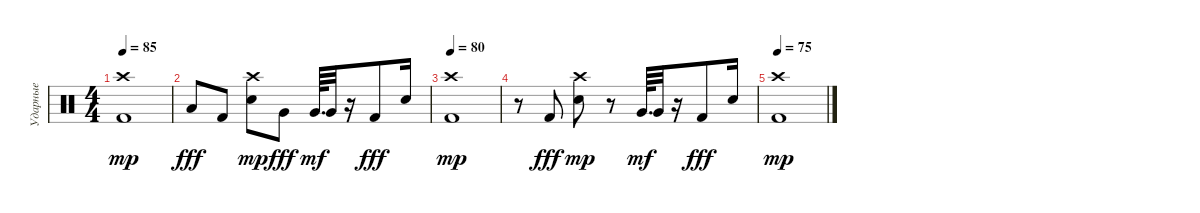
\track ("Ударные" "Ударные") {instrument percussion}
\staff {score}
\articulation defaults
\ts (4 4)
\tempo 85
\clef neutral
\ks c
("Kick (hit) 2" "Crash high (hit)").1{dy mp} |
"Low Floor Tom (hit)".8{dy fff} "Kick (hit) 2".8 ("Snare (hit) 2" "Crash high (hit)").8{dy mp} "Very Low Tom (hit)".8{dy fff} "Very Low Tom (hit)".64{d dy mf} "Very Low Tom (hit)".32 r.16 "Kick (hit) 2".8{dy fff} "Electric Snare (hit)".16 |
\tempo 80
("Kick (hit) 2" "Crash high (hit)").1{dy mp} |
r.8 "Kick (hit) 2".8{dy fff} ("Snare (hit) 2" "Crash high (hit)").8{dy mp} r.8 "Very Low Tom (hit)".64{d dy mf} "Very Low Tom (hit)".32 r.16 "Kick (hit) 2".8{dy fff} "Electric Snare (hit)".16 |
\tempo 75
("Kick (hit) 2" "Crash high (hit)").1{dy mp}
